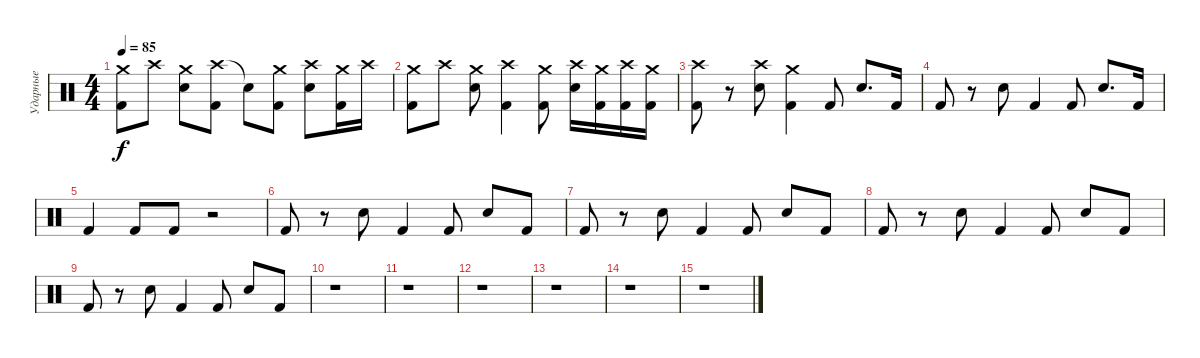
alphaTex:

\track ("Ударные" "Ударные") {instrument percussion}
\staff {score}
\articulation defaults
\ts (4 4)
\tempo 85
\clef neutral
\ks c
("Crash medium (hit)" "Kick (hit) 2").8{dy f} "Crash high (hit)".8 ("Crash medium (hit)" "Snare (hit) 2").8 ("Crash high (hit)" "Kick (hit) 2").8 "Snare (hit)"{t}.8 ("Crash medium (hit)" "Kick (hit) 2").8 ("Crash high (hit)" "Snare (hit) 2").8 ("Crash medium (hit)" "Kick (hit) 2").16 "Crash high (hit)".16 |
("Crash medium (hit)" "Kick (hit) 2").8 "Crash high (hit)".8 ("Crash medium (hit)" "Snare (hit) 2").8 ("Crash high (hit)" "Kick (hit) 2").4 ("Crash medium (hit)" "Kick (hit) 2").8 ("Crash high (hit)" "Snare (hit) 2").16 ("Crash medium (hit)" "Kick (hit) 2").16 ("Crash high (hit)" "Kick (hit) 2").16 ("Crash medium (hit)" "Kick (hit) 2").16 |
("Crash high (hit)" "Kick (hit) 2").8 r.8 ("Crash high (hit)" "Snare (hit) 2").8 ("Crash medium (hit)" "Kick (hit) 2").4 "Kick (hit) 2".8 "Snare (hit) 2".8{d} "Kick (hit) 2".16 |
"Kick (hit) 2".8 r.8 "Snare (hit) 2".8 "Kick (hit) 2".4 "Kick (hit) 2".8 "Snare (hit) 2".8{d} "Kick (hit) 2".16 |
"Kick (hit) 2".4 "Kick (hit) 2".8 "Kick (hit) 2".8 r.2 |
"Kick (hit) 2".8 r.8 "Snare (hit) 2".8 "Kick (hit) 2".4 "Kick (hit) 2".8 "Snare (hit) 2".8 "Kick (hit) 2".8 |
"Kick (hit) 2".8 r.8 "Snare (hit) 2".8 "Kick (hit) 2".4 "Kick (hit) 2".8 "Snare (hit) 2".8 "Kick (hit) 2".8 |
"Kick (hit) 2".8 r.8 "Snare (hit) 2".8 "Kick (hit) 2".4 "Kick (hit) 2".8 "Snare (hit) 2".8 "Kick (hit) 2".8 |
"Kick (hit) 2".8 r.8 "Snare (hit) 2".8 "Kick (hit) 2".4 "Kick (hit) 2".8 "Snare (hit) 2".8 "Kick (hit) 2".8 |
r.1 |
r.1 |
r.1 |
r.1 |
r.1 |
r.1
